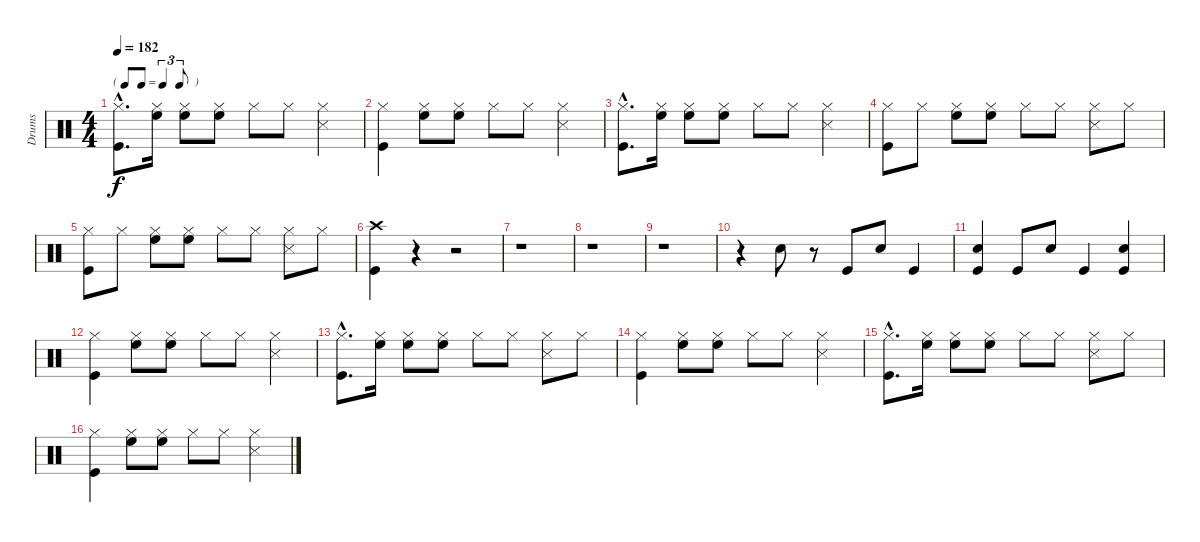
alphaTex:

\track ("Drums" "Drums") {instrument percussion}
\staff {score}
\articulation defaults
\ts (4 4)
\tf triplet8th
\tempo 182
\clef neutral
\ks c
("Hi-Hat (closed)"{hac} "Kick (hit)"{hac}).8{d dy f} ("Hi-Hat (closed)" "High Floor Tom (hit)").16 ("Hi-Hat (closed)" "High Floor Tom (hit)").8 ("Hi-Hat (closed)" "High Floor Tom (hit)").8 "Hi-Hat (closed)".8 "Hi-Hat (closed)".8 ("Hi-Hat (closed)" "Snare (side stick) 3").4 |
("Hi-Hat (closed)" "Kick (hit)").4 ("Hi-Hat (closed)" "High Floor Tom (hit)").8 ("Hi-Hat (closed)" "High Floor Tom (hit)").8 "Hi-Hat (closed)".8 "Hi-Hat (closed)".8 ("Hi-Hat (closed)" "Snare (side stick) 3").4 |
("Hi-Hat (closed)"{hac} "Kick (hit)"{hac}).8{d} ("Hi-Hat (closed)" "High Floor Tom (hit)").16 ("Hi-Hat (closed)" "High Floor Tom (hit)").8 ("Hi-Hat (closed)" "High Floor Tom (hit)").8 "Hi-Hat (closed)".8 "Hi-Hat (closed)".8 ("Hi-Hat (closed)" "Snare (side stick) 3").4 |
("Hi-Hat (closed)" "Kick (hit)").8 "Hi-Hat (closed)".8 ("Hi-Hat (closed)" "High Floor Tom (hit)").8 ("Hi-Hat (closed)" "High Floor Tom (hit)").8 "Hi-Hat (closed)".8 "Hi-Hat (closed)".8 ("Hi-Hat (closed)" "Snare (side stick) 3").8 "Hi-Hat (closed)".8 |
("Hi-Hat (closed)" "Kick (hit)").8 "Hi-Hat (closed)".8 ("Hi-Hat (closed)" "High Floor Tom (hit)").8 ("Hi-Hat (closed)" "High Floor Tom (hit)").8 "Hi-Hat (closed)".8 "Hi-Hat (closed)".8 ("Hi-Hat (closed)" "Snare (side stick) 3").8 "Hi-Hat (closed)".8 |
("Crash high (hit)" "Kick (hit)").4 r.4 r.2 |
r.1 |
r.1 |
r.1 |
r.4 "Snare (hit) 2".8 r.8 "Kick (hit)".8 "Snare (hit) 2".8 "Kick (hit)".4 |
("Snare (hit) 2" "Kick (hit)").4 "Kick (hit)".8 "Snare (hit) 2".8 "Kick (hit)".4 ("Snare (hit) 2" "Kick (hit)").4 |
("Hi-Hat (closed)" "Kick (hit)").4 ("Hi-Hat (closed)" "High Floor Tom (hit)").8 ("Hi-Hat (closed)" "High Floor Tom (hit)").8 "Hi-Hat (closed)".8 "Hi-Hat (closed)".8 ("Hi-Hat (closed)" "Snare (side stick) 3").4 |
("Hi-Hat (closed)"{hac} "Kick (hit)"{hac}).8{d} ("Hi-Hat (closed)" "High Floor Tom (hit)").16 ("Hi-Hat (closed)" "High Floor Tom (hit)").8 ("Hi-Hat (closed)" "High Floor Tom (hit)").8 "Hi-Hat (closed)".8 "Hi-Hat (closed)".8 ("Hi-Hat (closed)" "Snare (side stick) 3").8 "Hi-Hat (closed)".8 |
("Hi-Hat (closed)" "Kick (hit)").4 ("Hi-Hat (closed)" "High Floor Tom (hit)").8 ("Hi-Hat (closed)" "High Floor Tom (hit)").8 "Hi-Hat (closed)".8 "Hi-Hat (closed)".8 ("Hi-Hat (closed)" "Snare (side stick) 3").4 |
("Hi-Hat (closed)"{hac} "Kick (hit)"{hac}).8{d} ("Hi-Hat (closed)" "High Floor Tom (hit)").16 ("Hi-Hat (closed)" "High Floor Tom (hit)").8 ("Hi-Hat (closed)" "High Floor Tom (hit)").8 "Hi-Hat (closed)".8 "Hi-Hat (closed)".8 ("Hi-Hat (closed)" "Snare (side stick) 3").8 "Hi-Hat (closed)".8 |
("Hi-Hat (closed)" "Kick (hit)").4 ("Hi-Hat (closed)" "High Floor Tom (hit)").8 ("Hi-Hat (closed)" "High Floor Tom (hit)").8 "Hi-Hat (closed)".8 "Hi-Hat (closed)".8 ("Hi-Hat (closed)" "Snare (side stick) 3").4
